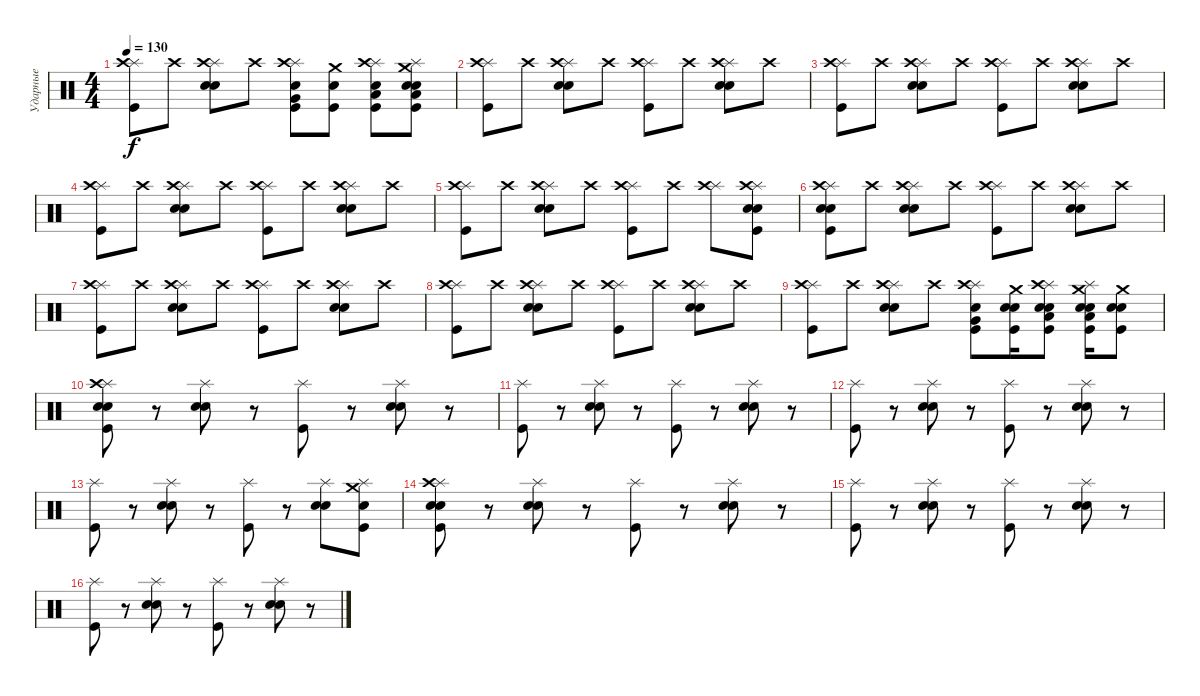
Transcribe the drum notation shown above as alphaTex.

\track ("Ударные" "Ударные") {instrument percussion}
\staff {score}
\articulation defaults
\ts (4 4)
\tempo 130
\clef neutral
\ks c
("Splash (hit)" "Crash high (hit)" "Kick (hit)").8{dy f} "Crash high (hit)".8 ("Splash (hit)" "Crash high (hit)" "Electric Snare (hit)" "Electric Snare (hit)").8 "Crash high (hit)".8 ("Splash (hit)" "Crash high (hit)" "Electric Snare (hit)" "Very Low Tom (hit)" "Kick (hit)").8 ("Crash medium (hit)" "Electric Snare (hit)" "Kick (hit)").8 ("Splash (hit)" "Crash high (hit)" "Electric Snare (hit)" "Low Floor Tom (hit)" "Kick (hit)").8 ("Splash (hit)" "Crash medium (hit)" "Electric Snare (hit)" "Electric Snare (hit)" "Low Floor Tom (hit)" "Kick (hit)").8 |
("Splash (hit)" "Crash high (hit)" "Kick (hit)").8 "Crash high (hit)".8 ("Splash (hit)" "Crash high (hit)" "Electric Snare (hit)" "Electric Snare (hit)").8 "Crash high (hit)".8 ("Splash (hit)" "Crash high (hit)" "Kick (hit)").8 "Crash high (hit)".8 ("Splash (hit)" "Crash high (hit)" "Electric Snare (hit)" "Electric Snare (hit)").8 "Crash high (hit)".8 |
("Splash (hit)" "Crash high (hit)" "Kick (hit)").8 "Crash high (hit)".8 ("Splash (hit)" "Crash high (hit)" "Electric Snare (hit)" "Electric Snare (hit)").8 "Crash high (hit)".8 ("Splash (hit)" "Crash high (hit)" "Kick (hit)").8 "Crash high (hit)".8 ("Splash (hit)" "Crash high (hit)" "Electric Snare (hit)" "Electric Snare (hit)").8 "Crash high (hit)".8 |
("Splash (hit)" "Crash high (hit)" "Kick (hit)").8 "Crash high (hit)".8 ("Splash (hit)" "Crash high (hit)" "Electric Snare (hit)" "Electric Snare (hit)").8 "Crash high (hit)".8 ("Splash (hit)" "Crash high (hit)" "Kick (hit)").8 "Crash high (hit)".8 ("Splash (hit)" "Crash high (hit)" "Electric Snare (hit)" "Electric Snare (hit)").8 "Crash high (hit)".8 |
("Splash (hit)" "Crash high (hit)" "Kick (hit)").8 "Crash high (hit)".8 ("Splash (hit)" "Crash high (hit)" "Electric Snare (hit)" "Electric Snare (hit)").8 "Crash high (hit)".8 ("Splash (hit)" "Crash high (hit)" "Kick (hit)").8 "Crash high (hit)".8 ("Splash (hit)" "Crash high (hit)").8 ("Splash (hit)" "Crash high (hit)" "Electric Snare (hit)" "Electric Snare (hit)" "Kick (hit)").8 |
("Splash (hit)" "Crash high (hit)" "Electric Snare (hit)" "Electric Snare (hit)" "Kick (hit)").8 "Crash high (hit)".8 ("Splash (hit)" "Crash high (hit)" "Electric Snare (hit)" "Electric Snare (hit)").8 "Crash high (hit)".8 ("Splash (hit)" "Crash high (hit)" "Kick (hit)").8 "Crash high (hit)".8 ("Splash (hit)" "Crash high (hit)" "Electric Snare (hit)" "Electric Snare (hit)").8 "Crash high (hit)".8 |
("Splash (hit)" "Crash high (hit)" "Kick (hit)").8 "Crash high (hit)".8 ("Splash (hit)" "Crash high (hit)" "Electric Snare (hit)" "Electric Snare (hit)").8 "Crash high (hit)".8 ("Splash (hit)" "Crash high (hit)" "Kick (hit)").8 "Crash high (hit)".8 ("Splash (hit)" "Crash high (hit)" "Electric Snare (hit)" "Electric Snare (hit)").8 "Crash high (hit)".8 |
("Splash (hit)" "Crash high (hit)" "Kick (hit)").8 "Crash high (hit)".8 ("Splash (hit)" "Crash high (hit)" "Electric Snare (hit)" "Electric Snare (hit)").8 "Crash high (hit)".8 ("Splash (hit)" "Crash high (hit)" "Kick (hit)").8 "Crash high (hit)".8 ("Splash (hit)" "Crash high (hit)" "Electric Snare (hit)" "Electric Snare (hit)").8 "Crash high (hit)".8 |
("Splash (hit)" "Crash high (hit)" "Kick (hit)").8 "Crash high (hit)".8 ("Splash (hit)" "Crash high (hit)" "Electric Snare (hit)" "Electric Snare (hit)").8 "Crash high (hit)".8 ("Splash (hit)" "Crash high (hit)" "Electric Snare (hit)" "Very Low Tom (hit)" "Kick (hit)").8 ("Crash medium (hit)" "Snare (hit) 2" "Electric Snare (hit)" "Kick (hit)").16 ("Splash (hit)" "Crash high (hit)" "Snare (hit) 2" "Electric Snare (hit)" "Low Floor Tom (hit)" "Kick (hit)").8 ("Splash (hit)" "Crash medium (hit)" "Electric Snare (hit)" "Electric Snare (hit)" "Low Floor Tom (hit)" "Kick (hit)").16 ("Crash medium (hit)" "Electric Snare (hit)" "Electric Snare (hit)" "Kick (hit)").8 |
("Splash (hit)" "Crash high (hit)" "Electric Snare (hit)" "Electric Snare (hit)" "Kick (hit)").8 r.8 ("Splash (hit)" "Electric Snare (hit)" "Electric Snare (hit)").8 r.8 ("Splash (hit)" "Kick (hit)").8 r.8 ("Splash (hit)" "Electric Snare (hit)" "Electric Snare (hit)").8 r.8 |
("Splash (hit)" "Kick (hit)").8 r.8 ("Splash (hit)" "Electric Snare (hit)" "Electric Snare (hit)").8 r.8 ("Splash (hit)" "Kick (hit)").8 r.8 ("Splash (hit)" "Electric Snare (hit)" "Electric Snare (hit)").8 r.8 |
("Splash (hit)" "Kick (hit)").8 r.8 ("Splash (hit)" "Electric Snare (hit)" "Electric Snare (hit)").8 r.8 ("Splash (hit)" "Kick (hit)").8 r.8 ("Splash (hit)" "Electric Snare (hit)" "Electric Snare (hit)").8 r.8 |
("Splash (hit)" "Kick (hit)").8 r.8 ("Splash (hit)" "Electric Snare (hit)" "Electric Snare (hit)").8 r.8 ("Splash (hit)" "Kick (hit)").8 r.8 ("Splash (hit)" "Electric Snare (hit)" "Electric Snare (hit)").8 ("Splash (hit)" "Crash medium (hit)" "Electric Snare (hit)" "Kick (hit)").8 |
("Splash (hit)" "Crash high (hit)" "Electric Snare (hit)" "Electric Snare (hit)" "Kick (hit)").8 r.8 ("Splash (hit)" "Electric Snare (hit)" "Electric Snare (hit)").8 r.8 ("Splash (hit)" "Kick (hit)").8 r.8 ("Splash (hit)" "Electric Snare (hit)" "Electric Snare (hit)").8 r.8 |
("Splash (hit)" "Kick (hit)").8 r.8 ("Splash (hit)" "Electric Snare (hit)" "Electric Snare (hit)").8 r.8 ("Splash (hit)" "Kick (hit)").8 r.8 ("Splash (hit)" "Electric Snare (hit)" "Electric Snare (hit)").8 r.8 |
("Splash (hit)" "Kick (hit)").8 r.8 ("Splash (hit)" "Electric Snare (hit)" "Electric Snare (hit)").8 r.8 ("Splash (hit)" "Kick (hit)").8 r.8 ("Splash (hit)" "Electric Snare (hit)" "Electric Snare (hit)").8 r.8
